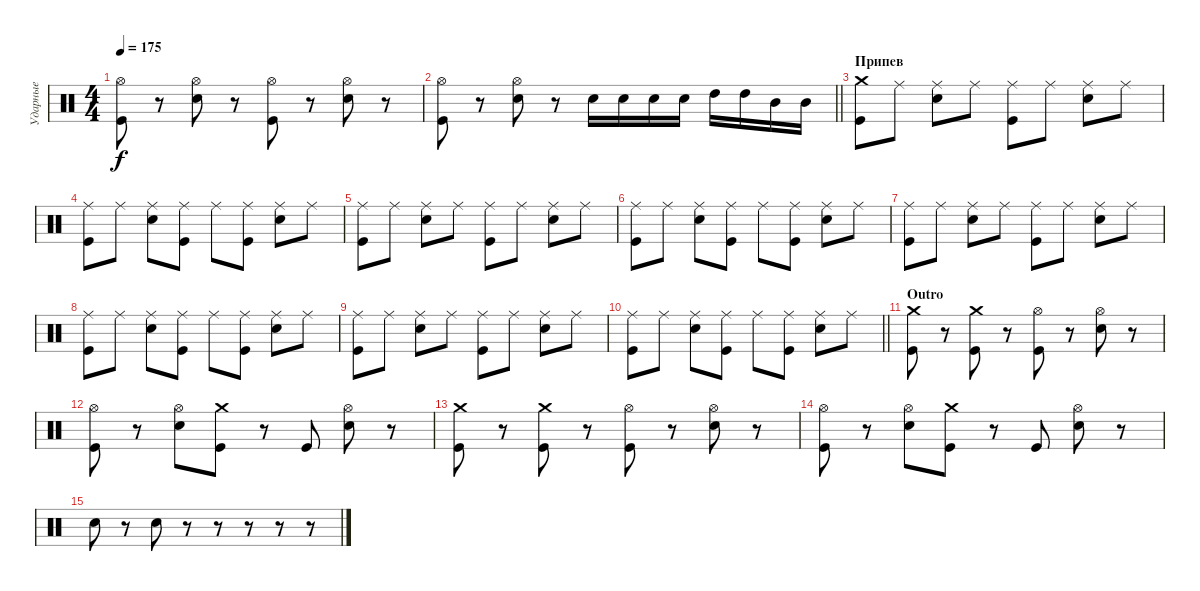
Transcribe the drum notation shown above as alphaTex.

\track ("Ударные" "Ударные") {instrument percussion}
\staff {score}
\articulation defaults
\ts (4 4)
\tempo 175
\clef neutral
\ks c
("Hi-Hat (open)" "Kick (hit)").8{dy f} r.8 ("Hi-Hat (open)" "Electric Snare (hit)").8 r.8 ("Hi-Hat (open)" "Kick (hit)").8 r.8 ("Hi-Hat (open)" "Electric Snare (hit)").8 r.8 |
\barLineRight lightlight
("Hi-Hat (open)" "Kick (hit)").8 r.8 ("Hi-Hat (open)" "Electric Snare (hit)").8 r.8 "Electric Snare (hit)".16 "Electric Snare (hit)".16 "Electric Snare (hit)".16 "Electric Snare (hit)".16 "High Tom (hit)".16 "High Tom (hit)".16 "Mid Tom (hit)".16 "Mid Tom (hit)".16 |
\section ("" "Припев")
("Crash medium (hit)" "Kick (hit)").8 "Ride (middle)".8 ("Ride (middle)" "Electric Snare (hit)").8 "Ride (middle)".8 ("Ride (middle)" "Kick (hit)").8 "Ride (middle)".8 ("Ride (middle)" "Electric Snare (hit)").8 "Ride (middle)".8 |
("Ride (middle)" "Kick (hit)").8 "Ride (middle)".8 ("Ride (middle)" "Electric Snare (hit)").8 ("Ride (middle)" "Kick (hit)").8 "Ride (middle)".8 ("Ride (middle)" "Kick (hit)").8 ("Ride (middle)" "Electric Snare (hit)").8 "Ride (middle)".8 |
("Ride (middle)" "Kick (hit)").8 "Ride (middle)".8 ("Ride (middle)" "Electric Snare (hit)").8 "Ride (middle)".8 ("Ride (middle)" "Kick (hit)").8 "Ride (middle)".8 ("Ride (middle)" "Electric Snare (hit)").8 "Ride (middle)".8 |
("Ride (middle)" "Kick (hit)").8 "Ride (middle)".8 ("Ride (middle)" "Electric Snare (hit)").8 ("Ride (middle)" "Kick (hit)").8 "Ride (middle)".8 ("Ride (middle)" "Kick (hit)").8 ("Ride (middle)" "Electric Snare (hit)").8 "Ride (middle)".8 |
("Ride (middle)" "Kick (hit)").8 "Ride (middle)".8 ("Ride (middle)" "Electric Snare (hit)").8 "Ride (middle)".8 ("Ride (middle)" "Kick (hit)").8 "Ride (middle)".8 ("Ride (middle)" "Electric Snare (hit)").8 "Ride (middle)".8 |
("Ride (middle)" "Kick (hit)").8 "Ride (middle)".8 ("Ride (middle)" "Electric Snare (hit)").8 ("Ride (middle)" "Kick (hit)").8 "Ride (middle)".8 ("Ride (middle)" "Kick (hit)").8 ("Ride (middle)" "Electric Snare (hit)").8 "Ride (middle)".8 |
("Ride (middle)" "Kick (hit)").8 "Ride (middle)".8 ("Ride (middle)" "Electric Snare (hit)").8 "Ride (middle)".8 ("Ride (middle)" "Kick (hit)").8 "Ride (middle)".8 ("Ride (middle)" "Electric Snare (hit)").8 "Ride (middle)".8 |
\barLineRight lightlight
("Ride (middle)" "Kick (hit)").8 "Ride (middle)".8 ("Ride (middle)" "Electric Snare (hit)").8 ("Ride (middle)" "Kick (hit)").8 "Ride (middle)".8 ("Ride (middle)" "Kick (hit)").8 ("Ride (middle)" "Electric Snare (hit)").8 "Ride (middle)".8 |
\section ("" "Outro")
("Crash medium (hit)" "Kick (hit)").8 r.8 ("Crash medium (hit)" "Kick (hit)").8 r.8 ("Hi-Hat (open)" "Kick (hit)").8 r.8 ("Hi-Hat (open)" "Electric Snare (hit)").8 r.8 |
("Hi-Hat (open)" "Kick (hit)").8 r.8 ("Hi-Hat (open)" "Electric Snare (hit)").8 ("Crash medium (hit)" "Kick (hit)").8 r.8 "Kick (hit)".8 ("Hi-Hat (open)" "Electric Snare (hit)").8 r.8 |
("Crash medium (hit)" "Kick (hit)").8 r.8 ("Crash medium (hit)" "Kick (hit)").8 r.8 ("Hi-Hat (open)" "Kick (hit)").8 r.8 ("Hi-Hat (open)" "Electric Snare (hit)").8 r.8 |
("Hi-Hat (open)" "Kick (hit)").8 r.8 ("Hi-Hat (open)" "Electric Snare (hit)").8 ("Crash medium (hit)" "Kick (hit)").8 r.8 "Kick (hit)".8 ("Hi-Hat (open)" "Electric Snare (hit)").8 r.8 |
"Electric Snare (hit)".8 r.8 "Electric Snare (hit)".8 r.8 r.8 r.8 r.8 r.8
